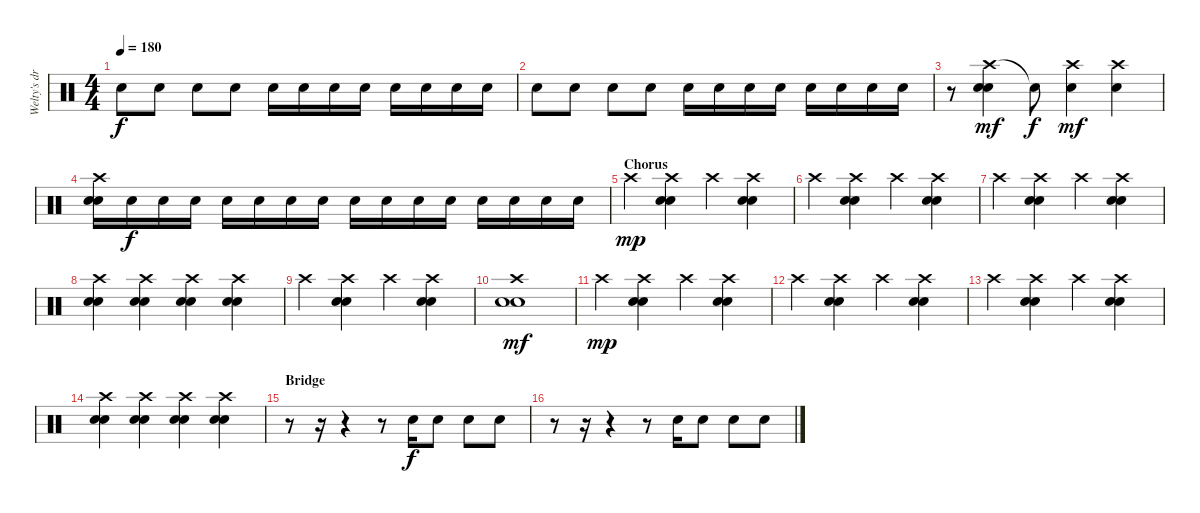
\track ("Welty's drums" "Welty's dr") {instrument percussion}
\staff {score}
\articulation defaults
\ts (4 4)
\tempo 180
\clef neutral
\ks c "Electric Snare (hit)".8{dy f} "Electric Snare (hit)".8 "Electric Snare (hit)".8 "Electric Snare (hit)".8 "Electric Snare (hit)".16 "Electric Snare (hit)".16 "Electric Snare (hit)".16 "Electric Snare (hit)".16 "Electric Snare (hit)".16 "Electric Snare (hit)".16 "Electric Snare (hit)".16 "Electric Snare (hit)".16
|
"Electric Snare (hit)".8 "Electric Snare (hit)".8 "Electric Snare (hit)".8 "Electric Snare (hit)".8 "Electric Snare (hit)".16 "Electric Snare (hit)".16 "Electric Snare (hit)".16 "Electric Snare (hit)".16 "Electric Snare (hit)".16 "Electric Snare (hit)".16 "Electric Snare (hit)".16 "Electric Snare (hit)".16 |
r.8 ("Crash high (hit)" "Electric Snare (hit)" "Electric Snare (hit)").4{dy mf} "Snare (hit)"{t}.8{dy f} ("Crash high (hit)" "Electric Snare (hit)").4{dy mf} ("Crash high (hit)" "Electric Snare (hit)").4 |
("Crash high (hit)" "Electric Snare (hit)" "Electric Snare (hit)").16 "Electric Snare (hit)".16{dy f} "Electric Snare (hit)".16 "Electric Snare (hit)".16 "Electric Snare (hit)".16 "Electric Snare (hit)".16 "Electric Snare (hit)".16 "Electric Snare (hit)".16 "Electric Snare (hit)".16 "Electric Snare (hit)".16 "Electric Snare (hit)".16 "Electric Snare (hit)".16 "Electric Snare (hit)".16 "Electric Snare (hit)".16 "Electric Snare (hit)".16 "Electric Snare (hit)".16 |
\section ("" "Chorus")
"Crash high (hit)".4{dy mp} ("Crash high (hit)" "Electric Snare (hit)" "Electric Snare (hit)").4 "Crash high (hit)".4 ("Crash high (hit)" "Electric Snare (hit)" "Electric Snare (hit)").4 |
"Crash high (hit)".4 ("Crash high (hit)" "Electric Snare (hit)" "Electric Snare (hit)").4 "Crash high (hit)".4 ("Crash high (hit)" "Electric Snare (hit)" "Electric Snare (hit)").4 |
"Crash high (hit)".4 ("Crash high (hit)" "Electric Snare (hit)" "Electric Snare (hit)").4 "Crash high (hit)".4 ("Crash high (hit)" "Electric Snare (hit)" "Electric Snare (hit)").4 |
("Crash high (hit)" "Electric Snare (hit)" "Electric Snare (hit)").4 ("Crash high (hit)" "Electric Snare (hit)" "Electric Snare (hit)").4 ("Crash high (hit)" "Electric Snare (hit)" "Electric Snare (hit)").4 ("Crash high (hit)" "Electric Snare (hit)" "Electric Snare (hit)").4 |
"Crash high (hit)".4 ("Crash high (hit)" "Electric Snare (hit)" "Electric Snare (hit)").4 "Crash high (hit)".4 ("Crash high (hit)" "Electric Snare (hit)" "Electric Snare (hit)").4 |
("Crash high (hit)" "Electric Snare (hit)" "Electric Snare (hit)").1{dy mf} |
"Crash high (hit)".4{dy mp} ("Crash high (hit)" "Electric Snare (hit)" "Electric Snare (hit)").4 "Crash high (hit)".4 ("Crash high (hit)" "Electric Snare (hit)" "Electric Snare (hit)").4 |
"Crash high (hit)".4 ("Crash high (hit)" "Electric Snare (hit)" "Electric Snare (hit)").4 "Crash high (hit)".4 ("Crash high (hit)" "Electric Snare (hit)" "Electric Snare (hit)").4 |
"Crash high (hit)".4 ("Crash high (hit)" "Electric Snare (hit)" "Electric Snare (hit)").4 "Crash high (hit)".4 ("Crash high (hit)" "Electric Snare (hit)" "Electric Snare (hit)").4 |
("Crash high (hit)" "Electric Snare (hit)" "Electric Snare (hit)").4 ("Crash high (hit)" "Electric Snare (hit)" "Electric Snare (hit)").4 ("Crash high (hit)" "Electric Snare (hit)" "Electric Snare (hit)").4 ("Crash high (hit)" "Electric Snare (hit)" "Electric Snare (hit)").4 |
\section ("" "Bridge")
r.8 r.16 r.4 r.8 "Electric Snare (hit)".16{dy f} "Electric Snare (hit)".8 "Electric Snare (hit)".8 "Electric Snare (hit)".8 |
r.8 r.16 r.4 r.8 "Electric Snare (hit)".16 "Electric Snare (hit)".8 "Electric Snare (hit)".8 "Electric Snare (hit)".8
